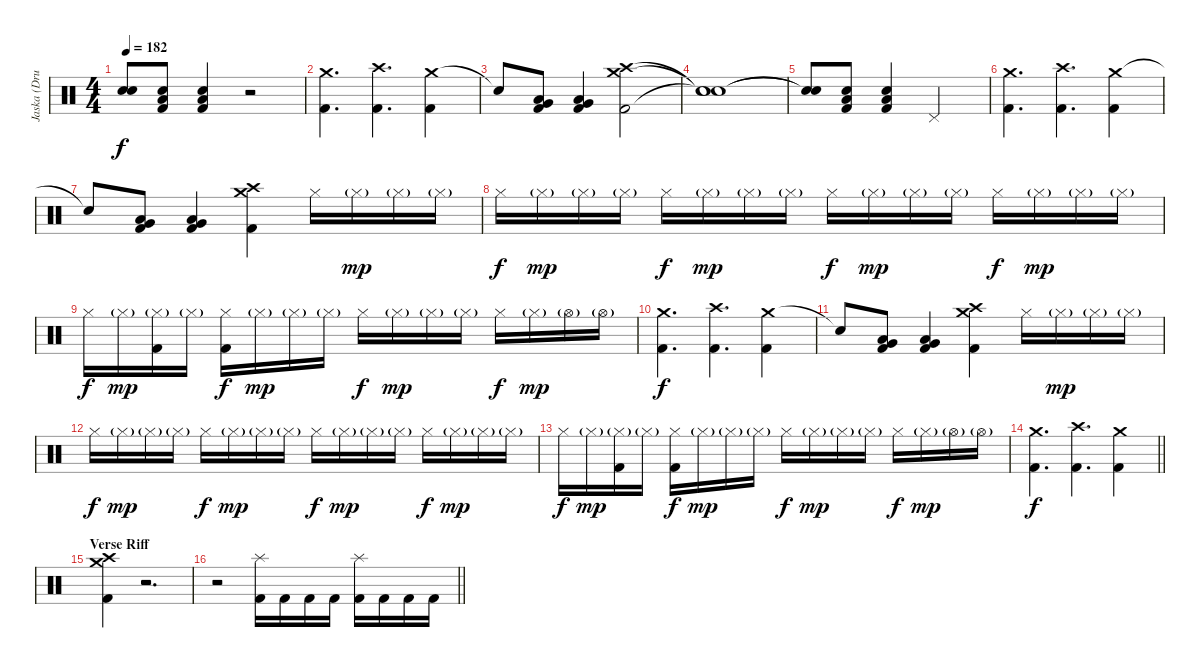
\track ("Jaska (Drums)" "Jaska (Dru") {instrument percussion}
\staff {score}
\articulation defaults
\ts (4 4)
\tempo 182
\clef neutral
\ks c
("Snare (hit)"{t} "Snare (hit)"{t}).8{dy f} ("Low Floor Tom (hit)" "Electric Snare (hit)" "Kick (hit) 2").8 ("Low Floor Tom (hit)" "Electric Snare (hit)" "Kick (hit) 2").4 r.2 |
("Crash medium (hit)" "Kick (hit) 2").4{d} ("Crash high (hit)" "Kick (hit) 2").4{d} ("Crash medium (hit)" "Kick (hit) 2").4 |
"Snare (hit)"{t}.8 ("Very Low Tom (hit)" "Low Floor Tom (hit)" "Kick (hit) 2").8 ("Very Low Tom (hit)" "Low Floor Tom (hit)" "Kick (hit) 2").4 ("Crash medium (hit)" "Crash high (hit)" "Kick (hit) 2").2 |
("Snare (hit)"{t} "Snare (hit)"{t} "Snare (hit)"{t}).1 |
("Snare (hit)"{t} "Snare (hit)"{t}).8 ("Low Floor Tom (hit)" "Electric Snare (hit)" "Kick (hit) 2").8 ("Low Floor Tom (hit)" "Electric Snare (hit)" "Kick (hit) 2").4 "Pedal Hi-Hat (hit)".2 |
("Crash medium (hit)" "Kick (hit) 2").4{d} ("Crash high (hit)" "Kick (hit) 2").4{d} ("Crash medium (hit)" "Kick (hit) 2").4 |
"Snare (hit)"{t}.8 ("Very Low Tom (hit)" "Low Floor Tom (hit)" "Kick (hit) 2").8 ("Very Low Tom (hit)" "Low Floor Tom (hit)" "Kick (hit) 2").4 ("Crash medium (hit)" "Crash high (hit)" "Kick (hit) 2").4 "Hi-Hat (closed)".16 "Hi-Hat (closed)"{g}.16{dy mp} "Hi-Hat (closed)"{g}.16 "Hi-Hat (closed)"{g}.16 |
"Hi-Hat (closed)".16{dy f} "Hi-Hat (closed)"{g}.16{dy mp} "Hi-Hat (closed)"{g}.16 "Hi-Hat (closed)"{g}.16 "Hi-Hat (closed)".16{dy f} "Hi-Hat (closed)"{g}.16{dy mp} "Hi-Hat (closed)"{g}.16 "Hi-Hat (closed)"{g}.16 "Hi-Hat (closed)".16{dy f} "Hi-Hat (closed)"{g}.16{dy mp} "Hi-Hat (closed)"{g}.16 "Hi-Hat (closed)"{g}.16 "Hi-Hat (closed)".16{dy f} "Hi-Hat (closed)"{g}.16{dy mp} "Hi-Hat (closed)"{g}.16 "Hi-Hat (closed)"{g}.16 |
"Hi-Hat (closed)".16{dy f} "Hi-Hat (closed)"{g}.16{dy mp} ("Hi-Hat (closed)"{g} "Kick (hit) 2").16 "Hi-Hat (closed)"{g}.16 ("Hi-Hat (closed)" "Kick (hit) 2").16{dy f} "Hi-Hat (closed)"{g}.16{dy mp} "Hi-Hat (closed)"{g}.16 "Hi-Hat (closed)"{g}.16 "Hi-Hat (closed)".16{dy f} "Hi-Hat (closed)"{g}.16{dy mp} "Hi-Hat (closed)"{g}.16 "Hi-Hat (closed)"{g}.16 "Hi-Hat (closed)".16{dy f} "Hi-Hat (closed)"{g}.16{dy mp} "Hi-Hat (open)"{g}.16 "Hi-Hat (open)"{g}.16 |
("Crash medium (hit)" "Kick (hit) 2").4{d dy f} ("Crash high (hit)" "Kick (hit) 2").4{d} ("Crash medium (hit)" "Kick (hit) 2").4 |
"Snare (hit)"{t}.8 ("Very Low Tom (hit)" "Low Floor Tom (hit)" "Kick (hit) 2").8 ("Very Low Tom (hit)" "Low Floor Tom (hit)" "Kick (hit) 2").4 ("Crash medium (hit)" "Crash high (hit)" "Kick (hit) 2").4 "Hi-Hat (closed)".16 "Hi-Hat (closed)"{g}.16{dy mp} "Hi-Hat (closed)"{g}.16 "Hi-Hat (closed)"{g}.16 |
"Hi-Hat (closed)".16{dy f} "Hi-Hat (closed)"{g}.16{dy mp} "Hi-Hat (closed)"{g}.16 "Hi-Hat (closed)"{g}.16 "Hi-Hat (closed)".16{dy f} "Hi-Hat (closed)"{g}.16{dy mp} "Hi-Hat (closed)"{g}.16 "Hi-Hat (closed)"{g}.16 "Hi-Hat (closed)".16{dy f} "Hi-Hat (closed)"{g}.16{dy mp} "Hi-Hat (closed)"{g}.16 "Hi-Hat (closed)"{g}.16 "Hi-Hat (closed)".16{dy f} "Hi-Hat (closed)"{g}.16{dy mp} "Hi-Hat (closed)"{g}.16 "Hi-Hat (closed)"{g}.16 |
"Hi-Hat (closed)".16{dy f} "Hi-Hat (closed)"{g}.16{dy mp} ("Hi-Hat (closed)"{g} "Kick (hit) 2").16 "Hi-Hat (closed)"{g}.16 ("Hi-Hat (closed)" "Kick (hit) 2").16{dy f} "Hi-Hat (closed)"{g}.16{dy mp} "Hi-Hat (closed)"{g}.16 "Hi-Hat (closed)"{g}.16 "Hi-Hat (closed)".16{dy f} "Hi-Hat (closed)"{g}.16{dy mp} "Hi-Hat (closed)"{g}.16 "Hi-Hat (closed)"{g}.16 "Hi-Hat (closed)".16{dy f} "Hi-Hat (closed)"{g}.16{dy mp} "Hi-Hat (open)"{g}.16 "Hi-Hat (open)"{g}.16 |
\barLineRight lightlight
("Crash medium (hit)" "Kick (hit) 2").4{d dy f} ("Crash high (hit)" "Kick (hit) 2").4{d} ("Crash medium (hit)" "Kick (hit) 2").4 |
\section ("" "Verse Riff")
("Crash medium (hit)" "Crash high (hit)" "Kick (hit) 2").4 r.2{d volume 0} |
\barLineRight lightlight
r.2 ("Splash (hit)" "Kick (hit) 2").16{volume 16} "Kick (hit) 2".16 "Kick (hit) 2".16 "Kick (hit) 2".16 ("Splash (hit)" "Kick (hit) 2").16 "Kick (hit) 2".16 "Kick (hit) 2".16 "Kick (hit) 2".16
